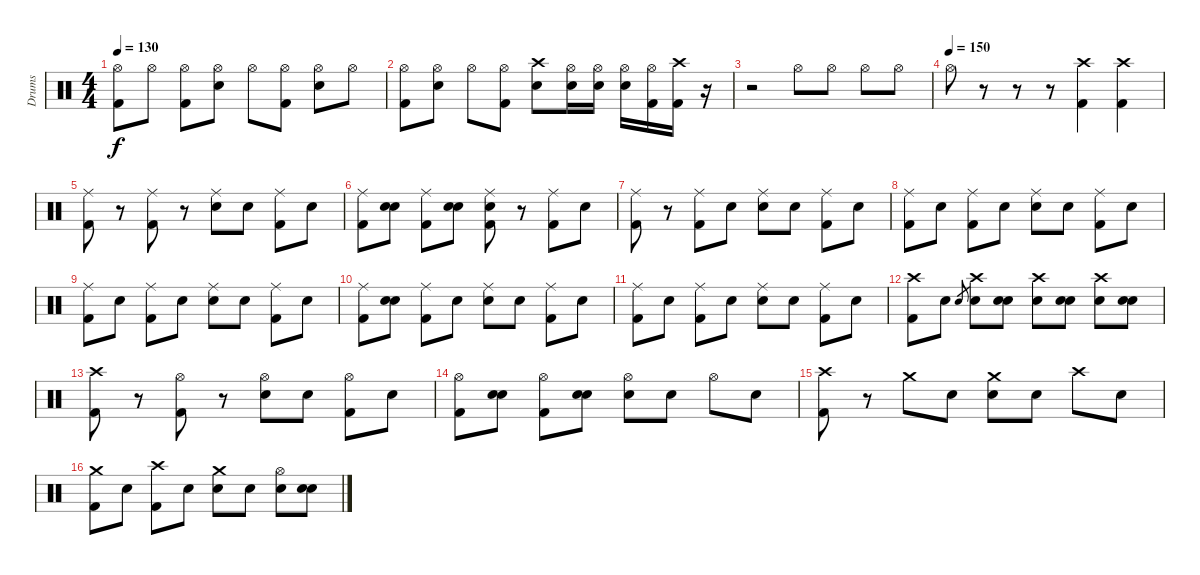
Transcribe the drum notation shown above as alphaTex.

\track ("Drums" "Drums") {instrument percussion}
\staff {score}
\articulation defaults
\ts (4 4)
\tempo 130
\clef neutral
\ks c
("Hi-Hat (open)" "Kick (hit) 2").8{dy f} "Hi-Hat (open)".8 ("Hi-Hat (open)" "Kick (hit) 2").8 ("Hi-Hat (open)" "Snare (hit) 2").8 "Hi-Hat (open)".8 ("Hi-Hat (open)" "Kick (hit) 2").8 ("Hi-Hat (open)" "Snare (hit) 2").8 "Hi-Hat (open)".8 |
("Hi-Hat (open)" "Kick (hit) 2").8 ("Hi-Hat (open)" "Snare (hit) 2").8 "Hi-Hat (open)".8 ("Hi-Hat (open)" "Kick (hit) 2").8 ("Crash high (hit)" "Snare (hit) 2").8 ("Hi-Hat (open)" "Snare (hit) 2").16 ("Hi-Hat (open)" "Snare (hit) 2").16 ("Hi-Hat (open)" "Snare (hit) 2").16 ("Hi-Hat (open)" "Kick (hit) 2").16 ("Crash high (hit)" "Kick (hit) 2").16 r.16 |
r.2 "Hi-Hat (open)".8 "Hi-Hat (open)".8 "Hi-Hat (open)".8 "Hi-Hat (open)".8 |
\tempo (150)
"Hi-Hat (open)".8 r.8 r.8 r.8 ("Crash high (hit)" "Kick (hit) 2").4 ("Crash high (hit)" "Kick (hit) 2").4 |
("Ride (middle)" "Kick (hit) 2").8 r.8 ("Ride (middle)" "Kick (hit) 2").8 r.8 ("Ride (middle)" "Snare (hit) 2").8 "Snare (hit)".8 ("Ride (middle)" "Kick (hit) 2").8 "Snare (hit)".8 |
("Ride (middle)" "Kick (hit) 2").8 ("Snare (hit)" "Snare (hit) 2").8 ("Ride (middle)" "Kick (hit) 2").8 ("Snare (hit)" "Snare (hit)").8 ("Ride (middle)" "Kick (hit) 2" "Snare (hit) 2").8 r.8 ("Ride (middle)" "Kick (hit) 2").8 "Snare (hit)".8 |
("Ride (middle)" "Kick (hit) 2").8 r.8 ("Ride (middle)" "Kick (hit) 2").8 "Snare (hit)".8 ("Ride (middle)" "Snare (hit) 2").8 "Snare (hit)".8 ("Ride (middle)" "Kick (hit) 2").8 "Snare (hit)".8 |
("Ride (middle)" "Kick (hit) 2").8 "Snare (hit)".8 ("Ride (middle)" "Kick (hit) 2").8 "Snare (hit)".8 ("Ride (middle)" "Snare (hit) 2").8 "Snare (hit)".8 ("Ride (middle)" "Kick (hit) 2").8 "Snare (hit)".8 |
("Ride (middle)" "Kick (hit) 2").8 "Snare (hit)".8 ("Ride (middle)" "Kick (hit) 2").8 "Snare (hit)".8 ("Ride (middle)" "Snare (hit) 2").8 "Snare (hit)".8 ("Ride (middle)" "Kick (hit) 2").8 "Snare (hit)".8 |
("Ride (middle)" "Kick (hit) 2").8 ("Snare (hit)" "Snare (hit) 2").8 ("Ride (middle)" "Kick (hit) 2").8 "Snare (hit)".8 ("Ride (middle)" "Snare (hit) 2").8 "Snare (hit)".8 ("Ride (middle)" "Kick (hit) 2").8 "Snare (hit)".8 |
("Ride (middle)" "Kick (hit) 2").8 "Snare (hit)".8 ("Ride (middle)" "Kick (hit) 2").8 "Snare (hit)".8 ("Ride (middle)" "Snare (hit) 2").8 "Snare (hit)".8 ("Ride (middle)" "Kick (hit) 2").8 "Snare (hit)".8 |
("Crash high (hit)" "Kick (hit) 2").8 "Snare (hit)".8 "Snare (hit) 2".8{gr} ("Crash high (hit)" "Snare (hit) 2").8 ("Snare (hit)" "Snare (hit) 2").8 ("Crash high (hit)" "Snare (hit) 2").8 ("Snare (hit)" "Snare (hit) 2").8 ("Crash high (hit)" "Snare (hit) 2").8 ("Snare (hit)" "Snare (hit) 2").8 |
("Crash high (hit)" "Kick (hit) 2").8 r.8 ("Hi-Hat (open)" "Kick (hit) 2").8 r.8 ("Hi-Hat (open)" "Snare (hit) 2").8 "Snare (hit)".8 ("Hi-Hat (open)" "Kick (hit) 2").8 "Snare (hit)".8 |
("Hi-Hat (open)" "Kick (hit) 2").8 ("Snare (hit)" "Snare (hit) 2").8 ("Hi-Hat (open)" "Kick (hit) 2").8 ("Snare (hit)" "Snare (hit)").8 ("Hi-Hat (open)" "Snare (hit) 2").8 "Snare (hit)".8 "Hi-Hat (open)".8 "Snare (hit)".8 |
("Crash high (hit)" "Kick (hit) 2").8 r.8 "Crash medium (hit)".8 "Snare (hit)".8 ("Crash medium (hit)" "Snare (hit) 2").8 "Snare (hit)".8 "Crash high (hit)".8 "Snare (hit)".8 |
("Crash medium (hit)" "Kick (hit) 2").8 "Snare (hit)".8 ("Crash high (hit)" "Kick (hit) 2").8 "Snare (hit)".8 ("Crash medium (hit)" "Snare (hit) 2").8 "Snare (hit)".8 ("Hi-Hat (open)" "Snare (hit) 2").8 ("Snare (hit)" "Snare (hit) 2").8
